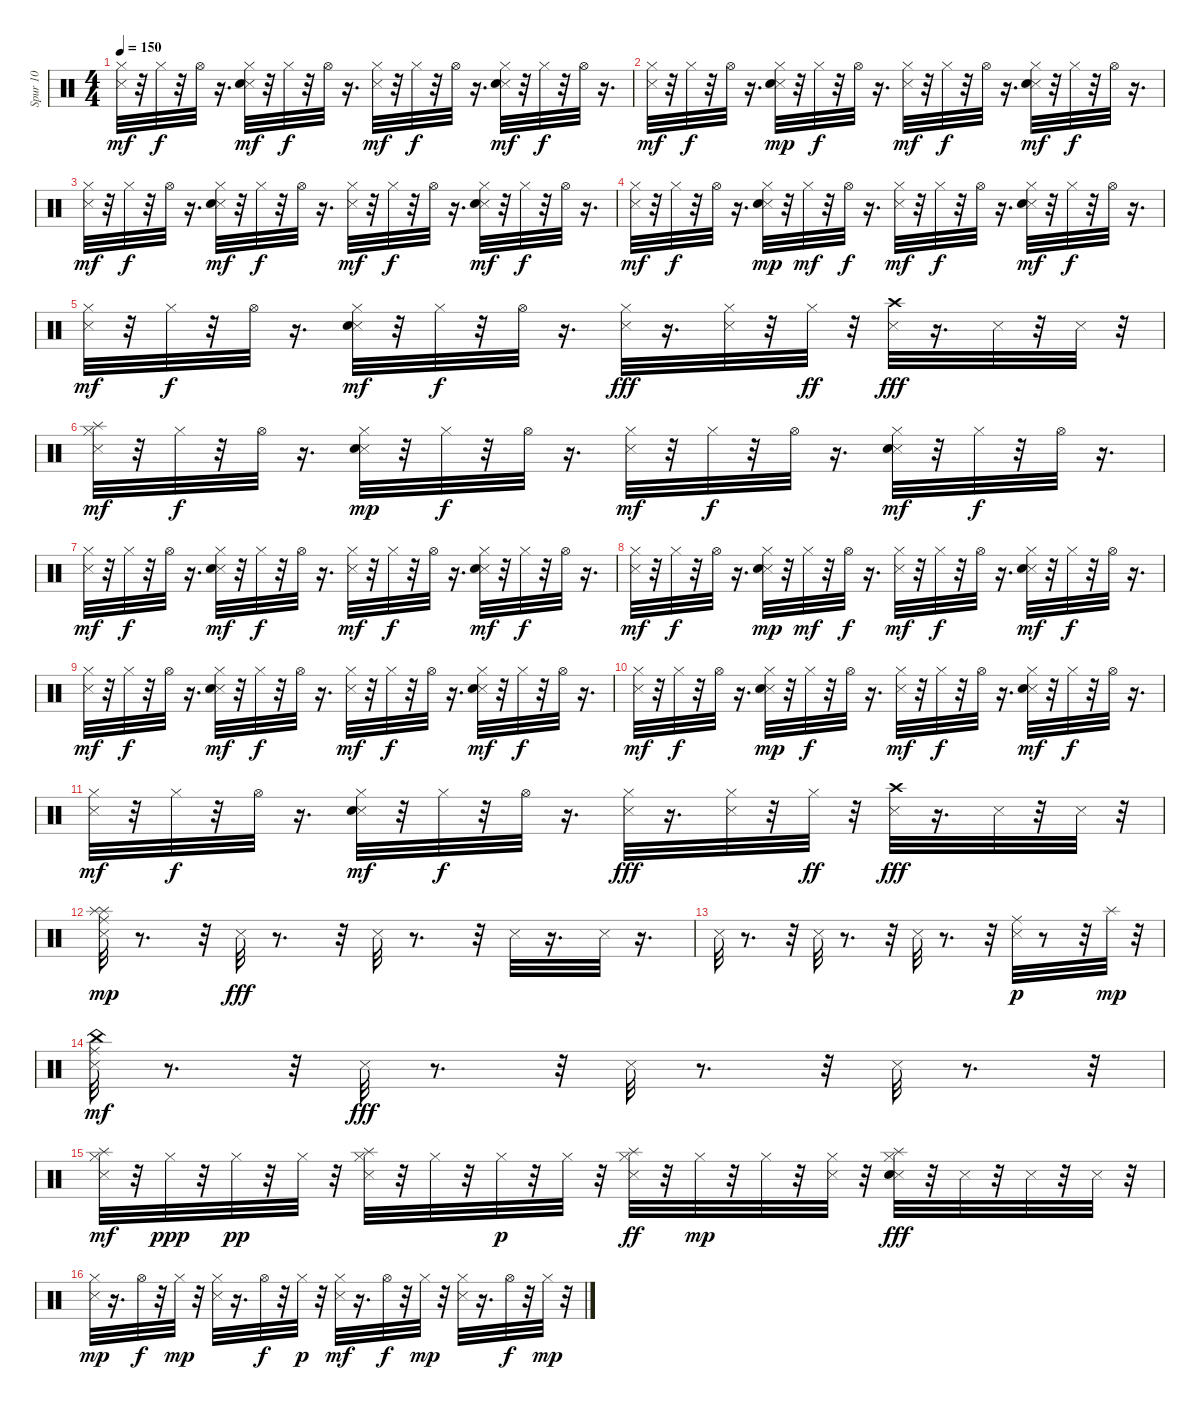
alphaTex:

\track ("Spur 10" "Spur 10") {instrument percussion}
\staff {score}
\articulation defaults
\ts (4 4)
\tempo 150
\clef neutral
\ks c
("Metronome (hit)" "Hi-Hat (closed)").32{dy mf} r.32 "Hi-Hat (closed)".32{dy f} r.32 "Hi-Hat (open)".32 r.16{d} ("Metronome (hit)" "Snare (hit) 2" "Hi-Hat (closed)").32{dy mf} r.32 "Hi-Hat (closed)".32{dy f} r.32 "Hi-Hat (open)".32 r.16{d} ("Metronome (hit)" "Hi-Hat (closed)").32{dy mf} r.32 "Hi-Hat (closed)".32{dy f} r.32 "Hi-Hat (open)".32 r.16{d} ("Metronome (hit)" "Snare (hit) 2" "Hi-Hat (closed)").32{dy mf} r.32 "Hi-Hat (closed)".32{dy f} r.32 "Hi-Hat (open)".32 r.16{d} |
("Metronome (hit)" "Hi-Hat (closed)").32{dy mf} r.32 "Hi-Hat (closed)".32{dy f} r.32 "Hi-Hat (open)".32 r.16{d} ("Metronome (hit)" "Snare (hit) 2" "Hi-Hat (closed)").32{dy mp} r.32 "Hi-Hat (closed)".32{dy f} r.32 "Hi-Hat (open)".32 r.16{d} ("Metronome (hit)" "Hi-Hat (closed)").32{dy mf} r.32 "Hi-Hat (closed)".32{dy f} r.32 "Hi-Hat (open)".32 r.16{d} ("Metronome (hit)" "Snare (hit) 2" "Hi-Hat (closed)").32{dy mf} r.32 "Hi-Hat (closed)".32{dy f} r.32 "Hi-Hat (open)".32 r.16{d} |
("Metronome (hit)" "Hi-Hat (closed)").32{dy mf} r.32 "Hi-Hat (closed)".32{dy f} r.32 "Hi-Hat (open)".32 r.16{d} ("Metronome (hit)" "Snare (hit) 2" "Hi-Hat (closed)").32{dy mf} r.32 "Hi-Hat (closed)".32{dy f} r.32 "Hi-Hat (open)".32 r.16{d} ("Metronome (hit)" "Hi-Hat (closed)").32{dy mf} r.32 "Hi-Hat (closed)".32{dy f} r.32 "Hi-Hat (open)".32 r.16{d} ("Metronome (hit)" "Snare (hit) 2" "Hi-Hat (closed)").32{dy mf} r.32 "Hi-Hat (closed)".32{dy f} r.32 "Hi-Hat (open)".32 r.16{d} |
("Metronome (hit)" "Hi-Hat (closed)").32{dy mf} r.32 "Hi-Hat (closed)".32{dy f} r.32 "Hi-Hat (open)".32 r.16{d} ("Metronome (hit)" "Snare (hit) 2" "Hi-Hat (closed)").32{dy mp} r.32 "Hi-Hat (closed)".32{dy mf} r.32 "Hi-Hat (open)".32{dy f} r.16{d} ("Metronome (hit)" "Hi-Hat (closed)").32{dy mf} r.32 "Hi-Hat (closed)".32{dy f} r.32 "Hi-Hat (open)".32 r.16{d} ("Metronome (hit)" "Snare (hit) 2" "Hi-Hat (closed)").32{dy mf} r.32 "Hi-Hat (closed)".32{dy f} r.32 "Hi-Hat (open)".32 r.16{d} |
("Metronome (hit)" "Hi-Hat (closed)").32{dy mf} r.32 "Hi-Hat (closed)".32{dy f} r.32 "Hi-Hat (open)".32 r.16{d} ("Metronome (hit)" "Snare (hit) 2" "Hi-Hat (closed)").32{dy mf} r.32 "Hi-Hat (closed)".32{dy f} r.32 "Hi-Hat (open)".32 r.16{d} ("Metronome (hit)" "Hi-Hat (closed)").32{dy fff} r.16{d} ("Metronome (hit)" "Hi-Hat (closed)").32 r.32 "Hi-Hat (closed)".32{dy ff} r.32 ("Metronome (hit)" "Crash high (hit)").32{dy fff} r.16{d} "Metronome (hit)".32 r.32 "Metronome (hit)".32 r.32 |
("Splash (hit)" "Metronome (hit)" "Hi-Hat (closed)").32{dy mf} r.32 "Hi-Hat (closed)".32{dy f} r.32 "Hi-Hat (open)".32 r.16{d} ("Metronome (hit)" "Snare (hit) 2" "Hi-Hat (closed)").32{dy mp} r.32 "Hi-Hat (closed)".32{dy f} r.32 "Hi-Hat (open)".32 r.16{d} ("Metronome (hit)" "Hi-Hat (closed)").32{dy mf} r.32 "Hi-Hat (closed)".32{dy f} r.32 "Hi-Hat (open)".32 r.16{d} ("Metronome (hit)" "Snare (hit) 2" "Hi-Hat (closed)").32{dy mf} r.32 "Hi-Hat (closed)".32{dy f} r.32 "Hi-Hat (open)".32 r.16{d} |
("Metronome (hit)" "Hi-Hat (closed)").32{dy mf} r.32 "Hi-Hat (closed)".32{dy f} r.32 "Hi-Hat (open)".32 r.16{d} ("Metronome (hit)" "Snare (hit) 2" "Hi-Hat (closed)").32{dy mf} r.32 "Hi-Hat (closed)".32{dy f} r.32 "Hi-Hat (open)".32 r.16{d} ("Metronome (hit)" "Hi-Hat (closed)").32{dy mf} r.32 "Hi-Hat (closed)".32{dy f} r.32 "Hi-Hat (open)".32 r.16{d} ("Metronome (hit)" "Snare (hit) 2" "Hi-Hat (closed)").32{dy mf} r.32 "Hi-Hat (closed)".32{dy f} r.32 "Hi-Hat (open)".32 r.16{d} |
("Metronome (hit)" "Hi-Hat (closed)").32{dy mf} r.32 "Hi-Hat (closed)".32{dy f} r.32 "Hi-Hat (open)".32 r.16{d} ("Metronome (hit)" "Snare (hit) 2" "Hi-Hat (closed)").32{dy mp} r.32 "Hi-Hat (closed)".32{dy mf} r.32 "Hi-Hat (open)".32{dy f} r.16{d} ("Metronome (hit)" "Hi-Hat (closed)").32{dy mf} r.32 "Hi-Hat (closed)".32{dy f} r.32 "Hi-Hat (open)".32 r.16{d} ("Metronome (hit)" "Snare (hit) 2" "Hi-Hat (closed)").32{dy mf} r.32 "Hi-Hat (closed)".32{dy f} r.32 "Hi-Hat (open)".32 r.16{d} |
("Metronome (hit)" "Hi-Hat (closed)").32{dy mf} r.32 "Hi-Hat (closed)".32{dy f} r.32 "Hi-Hat (open)".32 r.16{d} ("Metronome (hit)" "Snare (hit) 2" "Hi-Hat (closed)").32{dy mf} r.32 "Hi-Hat (closed)".32{dy f} r.32 "Hi-Hat (open)".32 r.16{d} ("Metronome (hit)" "Hi-Hat (closed)").32{dy mf} r.32 "Hi-Hat (closed)".32{dy f} r.32 "Hi-Hat (open)".32 r.16{d} ("Metronome (hit)" "Snare (hit) 2" "Hi-Hat (closed)").32{dy mf} r.32 "Hi-Hat (closed)".32{dy f} r.32 "Hi-Hat (open)".32 r.16{d} |
("Metronome (hit)" "Hi-Hat (closed)").32{dy mf} r.32 "Hi-Hat (closed)".32{dy f} r.32 "Hi-Hat (open)".32 r.16{d} ("Metronome (hit)" "Snare (hit) 2" "Hi-Hat (closed)").32{dy mp} r.32 "Hi-Hat (closed)".32{dy f} r.32 "Hi-Hat (open)".32 r.16{d} ("Metronome (hit)" "Hi-Hat (closed)").32{dy mf} r.32 "Hi-Hat (closed)".32{dy f} r.32 "Hi-Hat (open)".32 r.16{d} ("Metronome (hit)" "Snare (hit) 2" "Hi-Hat (closed)").32{dy mf} r.32 "Hi-Hat (closed)".32{dy f} r.32 "Hi-Hat (open)".32 r.16{d} |
("Metronome (hit)" "Hi-Hat (closed)").32{dy mf} r.32 "Hi-Hat (closed)".32{dy f} r.32 "Hi-Hat (open)".32 r.16{d} ("Metronome (hit)" "Snare (hit) 2" "Hi-Hat (closed)").32{dy mf} r.32 "Hi-Hat (closed)".32{dy f} r.32 "Hi-Hat (open)".32 r.16{d} ("Metronome (hit)" "Hi-Hat (closed)").32{dy fff} r.16{d} ("Metronome (hit)" "Hi-Hat (closed)").32 r.32 "Hi-Hat (closed)".32{dy ff} r.32 ("Metronome (hit)" "Crash high (hit)").32{dy fff} r.16{d} "Metronome (hit)".32 r.32 "Metronome (hit)".32 r.32 |
("Splash (hit)" "Metronome (hit)" "Ride (middle)" "Splash (hit)").32{dy mp} r.8{d} r.32 "Metronome (hit)".32{dy fff} r.8{d} r.32 "Metronome (hit)".32 r.8{d} r.32 "Metronome (hit)".32 r.16{d} "Metronome (hit)".32 r.16{d} |
"Metronome (hit)".32 r.8{d} r.32 "Metronome (hit)".32 r.8{d} r.32 "Metronome (hit)".32 r.8{d} r.32 ("Metronome (hit)" "Ride (middle)").32{dy p} r.8 r.32 "Splash (hit)".32{dy mp} r.32 |
("Metronome (hit)" "Ride (middle)" "China (hit)").32{dy mf} r.8{d} r.32 "Metronome (hit)".32{dy fff} r.8{d} r.32 "Metronome (hit)".32 r.8{d} r.32 "Metronome (hit)".32 r.8{d} r.32 |
("Metronome (hit)" "Hi-Hat (closed)" "Splash (hit)").32{dy mf} r.32 "Hi-Hat (closed)".32{dy ppp} r.32 "Hi-Hat (closed)".32{dy pp} r.32 "Hi-Hat (closed)".32 r.32 ("Metronome (hit)" "Hi-Hat (closed)" "Splash (hit)").32 r.32 "Hi-Hat (closed)".32 r.32 "Hi-Hat (closed)".32{dy p} r.32 "Hi-Hat (closed)".32 r.32 ("Metronome (hit)" "Hi-Hat (closed)" "Splash (hit)").32{dy ff} r.32 "Hi-Hat (closed)".32{dy mp} r.32 "Hi-Hat (closed)".32 r.32 ("Metronome (hit)" "Hi-Hat (closed)").32 r.32 ("Metronome (hit)" "Hand Clap (hit)" "Hi-Hat (closed)" "Splash (hit)").32{dy fff} r.32 "Metronome (hit)".32 r.32 "Metronome (hit)".32 r.32 "Metronome (hit)".32 r.32 |
("Metronome (hit)" "Hi-Hat (closed)").32{dy mp} r.16{d} "Hi-Hat (open)".32{dy f} r.32 "Hi-Hat (closed)".32{dy mp} r.32 ("Metronome (hit)" "Hi-Hat (closed)").32 r.16{d} "Hi-Hat (open)".32{dy f} r.32 "Hi-Hat (closed)".32{dy p} r.32 ("Metronome (hit)" "Hi-Hat (closed)").32{dy mf} r.16{d} "Hi-Hat (open)".32{dy f} r.32 "Hi-Hat (closed)".32{dy mp} r.32 ("Metronome (hit)" "Hi-Hat (closed)").32 r.16{d} "Hi-Hat (open)".32{dy f} r.32 "Hi-Hat (closed)".32{dy mp} r.32
